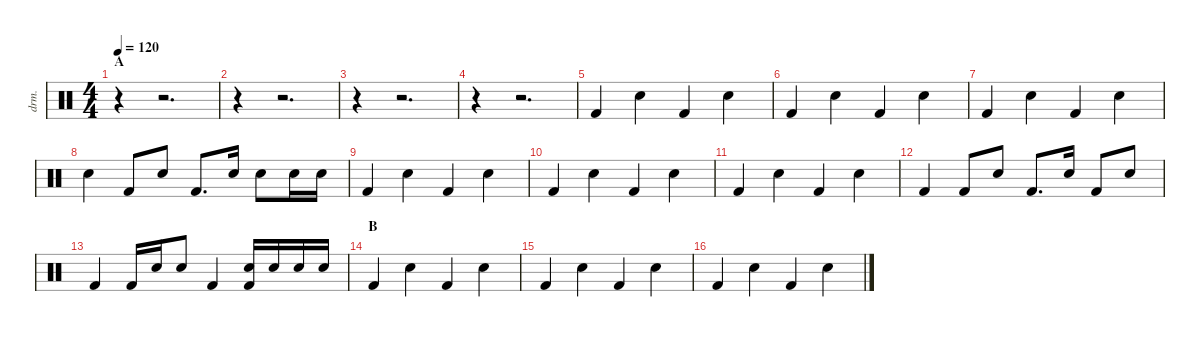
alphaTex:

\defaultSystemsLayout 4
\hideDynamics
\bracketExtendMode nobrackets
\otherSystemsTrackNameOrientation horizontal
\track ("Batterie" "drm.") {instrument percussion}
\staff {score}
\articulation defaults
\ts (4 4)
\section ("" "A")
\tempo 120
\clef neutral
\ks c
r.4{dy f} r.2{d} |
r.4 r.2{d} |
r.4 r.2{d} |
r.4 r.2{d} |
"Kick (hit) 2".4 "Snare (hit) 2".4 "Kick (hit) 2".4 "Snare (hit) 2".4 |
"Kick (hit) 2".4 "Snare (hit) 2".4 "Kick (hit) 2".4 "Snare (hit) 2".4 |
"Kick (hit) 2".4 "Snare (hit) 2".4 "Kick (hit) 2".4 "Snare (hit) 2".4 |
"Snare (hit) 2".4 "Kick (hit) 2".8 "Snare (hit) 2".8 "Kick (hit) 2".8{d} "Snare (hit) 2".16 "Snare (hit) 2".8 "Snare (hit) 2".16 "Snare (hit) 2".16 |
"Kick (hit) 2".4 "Snare (hit) 2".4 "Kick (hit) 2".4 "Snare (hit) 2".4 |
"Kick (hit) 2".4 "Snare (hit) 2".4 "Kick (hit) 2".4 "Snare (hit) 2".4 |
"Kick (hit) 2".4 "Snare (hit) 2".4 "Kick (hit) 2".4 "Snare (hit) 2".4 |
"Kick (hit) 2".4 "Kick (hit) 2".8 "Snare (hit) 2".8 "Kick (hit) 2".8{d} "Snare (hit) 2".16 "Kick (hit) 2".8 "Snare (hit) 2".8 |
"Kick (hit) 2".4 "Kick (hit) 2".16 "Snare (hit) 2".16 "Snare (hit) 2".8 "Kick (hit) 2".4 ("Snare (hit) 2" "Kick (hit) 2").16 "Snare (hit) 2".16 "Snare (hit) 2".16 "Snare (hit) 2".16 |
\section ("" "B")
"Kick (hit) 2".4 "Snare (hit) 2".4 "Kick (hit) 2".4 "Snare (hit) 2".4 |
"Kick (hit) 2".4 "Snare (hit) 2".4 "Kick (hit) 2".4 "Snare (hit) 2".4 |
"Kick (hit) 2".4 "Snare (hit) 2".4 "Kick (hit) 2".4 "Snare (hit) 2".4
